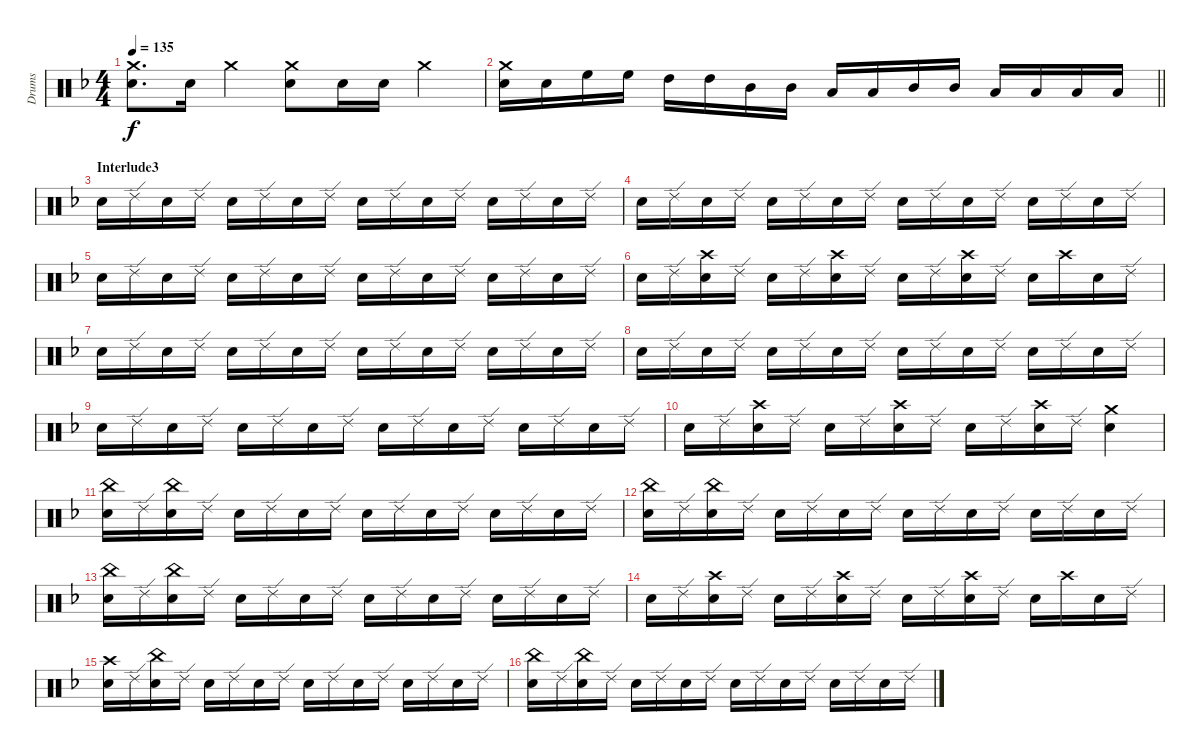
\track ("Drums" "Drums") {instrument percussion}
\staff {score}
\articulation defaults
\ts (4 4)
\tempo 135
\clef neutral
\ks dminor
("Crash medium (hit)" "Snare (hit) 2").8{d dy f} "Snare (hit) 2".16 "Crash medium (hit)".4 ("Crash medium (hit)" "Snare (hit) 2").8 "Snare (hit) 2".16 "Snare (hit) 2".16 "Crash medium (hit)".4 |
\barLineRight lightlight
("Crash medium (hit)" "Snare (hit) 2").16 "Snare (hit) 2".16 "High Floor Tom (hit)".16 "High Floor Tom (hit)".16 "High Tom (hit)".16 "High Tom (hit)".16 "Mid Tom (hit)".16 "Mid Tom (hit)".16 "Low Tom (hit)".16 "Low Tom (hit)".16 "Mid Tom (hit)".16 "Mid Tom (hit)".16 "Low Tom (hit)".16 "Low Tom (hit)".16 "Low Floor Tom (hit)".16 "Low Floor Tom (hit)".16 |
\section ("" "Interlude3")
"Snare (hit) 2".16 "Ride (edge) 2".16 "Snare (hit) 2".16 "Ride (edge) 2".16 "Snare (hit) 2".16 "Ride (edge) 2".16 "Snare (hit) 2".16 "Ride (edge) 2".16 "Snare (hit) 2".16 "Ride (edge) 2".16 "Snare (hit) 2".16 "Ride (edge) 2".16 "Snare (hit) 2".16 "Ride (edge) 2".16 "Snare (hit) 2".16 "Ride (edge) 2".16 |
"Snare (hit) 2".16 "Ride (edge) 2".16 "Snare (hit) 2".16 "Ride (edge) 2".16 "Snare (hit) 2".16 "Ride (edge) 2".16 "Snare (hit) 2".16 "Ride (edge) 2".16 "Snare (hit) 2".16 "Ride (edge) 2".16 "Snare (hit) 2".16 "Ride (edge) 2".16 "Snare (hit) 2".16 "Ride (edge) 2".16 "Snare (hit) 2".16 "Ride (edge) 2".16 |
"Snare (hit) 2".16 "Ride (edge) 2".16 "Snare (hit) 2".16 "Ride (edge) 2".16 "Snare (hit) 2".16 "Ride (edge) 2".16 "Snare (hit) 2".16 "Ride (edge) 2".16 "Snare (hit) 2".16 "Ride (edge) 2".16 "Snare (hit) 2".16 "Ride (edge) 2".16 "Snare (hit) 2".16 "Ride (edge) 2".16 "Snare (hit) 2".16 "Ride (edge) 2".16 |
"Snare (hit) 2".16 "Ride (edge) 2".16 ("Crash high (hit)" "Snare (hit) 2").16 "Ride (edge) 2".16 "Snare (hit) 2".16 "Ride (edge) 2".16 ("Crash high (hit)" "Snare (hit) 2").16 "Ride (edge) 2".16 "Snare (hit) 2".16 "Ride (edge) 2".16 ("Crash high (hit)" "Snare (hit) 2").16 "Ride (edge) 2".16 "Snare (hit) 2".16 "Crash high (hit)".16 "Snare (hit) 2".16 "Ride (edge) 2".16 |
"Snare (hit) 2".16 "Ride (edge) 2".16 "Snare (hit) 2".16 "Ride (edge) 2".16 "Snare (hit) 2".16 "Ride (edge) 2".16 "Snare (hit) 2".16 "Ride (edge) 2".16 "Snare (hit) 2".16 "Ride (edge) 2".16 "Snare (hit) 2".16 "Ride (edge) 2".16 "Snare (hit) 2".16 "Ride (edge) 2".16 "Snare (hit) 2".16 "Ride (edge) 2".16 |
"Snare (hit) 2".16 "Ride (edge) 2".16 "Snare (hit) 2".16 "Ride (edge) 2".16 "Snare (hit) 2".16 "Ride (edge) 2".16 "Snare (hit) 2".16 "Ride (edge) 2".16 "Snare (hit) 2".16 "Ride (edge) 2".16 "Snare (hit) 2".16 "Ride (edge) 2".16 "Snare (hit) 2".16 "Ride (edge) 2".16 "Snare (hit) 2".16 "Ride (edge) 2".16 |
"Snare (hit) 2".16 "Ride (edge) 2".16 "Snare (hit) 2".16 "Ride (edge) 2".16 "Snare (hit) 2".16 "Ride (edge) 2".16 "Snare (hit) 2".16 "Ride (edge) 2".16 "Snare (hit) 2".16 "Ride (edge) 2".16 "Snare (hit) 2".16 "Ride (edge) 2".16 "Snare (hit) 2".16 "Ride (edge) 2".16 "Snare (hit) 2".16 "Ride (edge) 2".16 |
"Snare (hit) 2".16 "Ride (edge) 2".16 ("Crash high (hit)" "Snare (hit) 2").16 "Ride (edge) 2".16 "Snare (hit) 2".16 "Ride (edge) 2".16 ("Crash high (hit)" "Snare (hit) 2").16 "Ride (edge) 2".16 "Snare (hit) 2".16 "Ride (edge) 2".16 ("Crash high (hit)" "Snare (hit) 2").16 "Ride (edge) 2".16 ("Crash medium (hit)" "Snare (hit) 2").4 |
("China (hit)" "Snare (hit) 2").16 "Ride (edge) 2".16 ("China (hit)" "Snare (hit) 2").16 "Ride (edge) 2".16 "Snare (hit) 2".16 "Ride (edge) 2".16 "Snare (hit) 2".16 "Ride (edge) 2".16 "Snare (hit) 2".16 "Ride (edge) 2".16 "Snare (hit) 2".16 "Ride (edge) 2".16 "Snare (hit) 2".16 "Ride (edge) 2".16 "Snare (hit) 2".16 "Ride (edge) 2".16 |
("China (hit)" "Snare (hit) 2").16 "Ride (edge) 2".16 ("China (hit)" "Snare (hit) 2").16 "Ride (edge) 2".16 "Snare (hit) 2".16 "Ride (edge) 2".16 "Snare (hit) 2".16 "Ride (edge) 2".16 "Snare (hit) 2".16 "Ride (edge) 2".16 "Snare (hit) 2".16 "Ride (edge) 2".16 "Snare (hit) 2".16 "Ride (edge) 2".16 "Snare (hit) 2".16 "Ride (edge) 2".16 |
("China (hit)" "Snare (hit) 2").16 "Ride (edge) 2".16 ("China (hit)" "Snare (hit) 2").16 "Ride (edge) 2".16 "Snare (hit) 2".16 "Ride (edge) 2".16 "Snare (hit) 2".16 "Ride (edge) 2".16 "Snare (hit) 2".16 "Ride (edge) 2".16 "Snare (hit) 2".16 "Ride (edge) 2".16 "Snare (hit) 2".16 "Ride (edge) 2".16 "Snare (hit) 2".16 "Ride (edge) 2".16 |
"Snare (hit) 2".16 "Ride (edge) 2".16 ("Crash high (hit)" "Snare (hit) 2").16 "Ride (edge) 2".16 "Snare (hit) 2".16 "Ride (edge) 2".16 ("Crash high (hit)" "Snare (hit) 2").16 "Ride (edge) 2".16 "Snare (hit) 2".16 "Ride (edge) 2".16 ("Crash high (hit)" "Snare (hit) 2").16 "Ride (edge) 2".16 "Snare (hit) 2".16 "Crash high (hit)".16 "Snare (hit) 2".16 "Ride (edge) 2".16 |
("Crash high (hit)" "Snare (hit) 2").16 "Ride (edge) 2".16 ("China (hit)" "Snare (hit) 2").16 "Ride (edge) 2".16 "Snare (hit) 2".16 "Ride (edge) 2".16 "Snare (hit) 2".16 "Ride (edge) 2".16 "Snare (hit) 2".16 "Ride (edge) 2".16 "Snare (hit) 2".16 "Ride (edge) 2".16 "Snare (hit) 2".16 "Ride (edge) 2".16 "Snare (hit) 2".16 "Ride (edge) 2".16 |
("China (hit)" "Snare (hit) 2").16 "Ride (edge) 2".16 ("China (hit)" "Snare (hit) 2").16 "Ride (edge) 2".16 "Snare (hit) 2".16 "Ride (edge) 2".16 "Snare (hit) 2".16 "Ride (edge) 2".16 "Snare (hit) 2".16 "Ride (edge) 2".16 "Snare (hit) 2".16 "Ride (edge) 2".16 "Snare (hit) 2".16 "Ride (edge) 2".16 "Snare (hit) 2".16 "Ride (edge) 2".16
